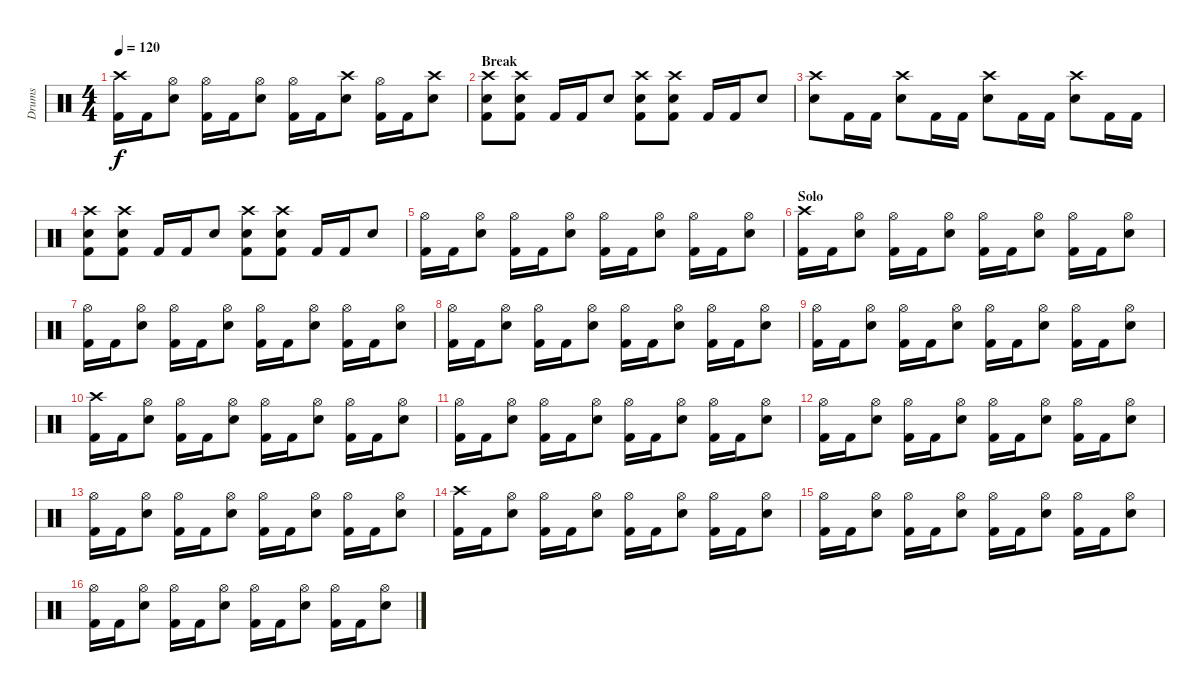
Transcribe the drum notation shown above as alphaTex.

\track ("Drums" "Drums") {instrument percussion}
\staff {score}
\articulation defaults
\ts (4 4)
\tempo 120
\clef neutral
\ks c
("Crash high (hit)" "Kick (hit) 2").16{dy f} "Kick (hit) 2".16 ("Hi-Hat (open)" "Electric Snare (hit)").8 ("Hi-Hat (open)" "Kick (hit) 2").16 "Kick (hit) 2".16 ("Hi-Hat (open)" "Electric Snare (hit)").8 ("Hi-Hat (open)" "Kick (hit) 2").16 "Kick (hit) 2".16 ("Crash high (hit)" "Electric Snare (hit)").8 ("Hi-Hat (open)" "Kick (hit) 2").16 "Kick (hit) 2".16 ("Crash high (hit)" "Electric Snare (hit)").8 |
\section ("" "Break")
("Crash high (hit)" "Electric Snare (hit)" "Kick (hit) 2").8 ("Crash high (hit)" "Electric Snare (hit)" "Kick (hit) 2").8 "Kick (hit) 2".16 "Kick (hit) 2".16 "Electric Snare (hit)".8 ("Crash high (hit)" "Electric Snare (hit)" "Kick (hit) 2").8 ("Crash high (hit)" "Electric Snare (hit)" "Kick (hit) 2").8 "Kick (hit) 2".16 "Kick (hit) 2".16 "Electric Snare (hit)".8 |
("Crash high (hit)" "Electric Snare (hit)").8 "Kick (hit) 2".16 "Kick (hit) 2".16 ("Crash high (hit)" "Electric Snare (hit)").8 "Kick (hit) 2".16 "Kick (hit) 2".16 ("Crash high (hit)" "Electric Snare (hit)").8 "Kick (hit) 2".16 "Kick (hit) 2".16 ("Crash high (hit)" "Electric Snare (hit)").8 "Kick (hit) 2".16 "Kick (hit) 2".16 |
("Crash high (hit)" "Electric Snare (hit)" "Kick (hit) 2").8 ("Crash high (hit)" "Electric Snare (hit)" "Kick (hit) 2").8 "Kick (hit) 2".16 "Kick (hit) 2".16 "Electric Snare (hit)".8 ("Crash high (hit)" "Electric Snare (hit)" "Kick (hit) 2").8 ("Crash high (hit)" "Electric Snare (hit)" "Kick (hit) 2").8 "Kick (hit) 2".16 "Kick (hit) 2".16 "Electric Snare (hit)".8 |
("Hi-Hat (open)" "Kick (hit) 2").16 "Kick (hit) 2".16 ("Hi-Hat (open)" "Electric Snare (hit)").8 ("Hi-Hat (open)" "Kick (hit) 2").16 "Kick (hit) 2".16 ("Hi-Hat (open)" "Electric Snare (hit)").8 ("Hi-Hat (open)" "Kick (hit) 2").16 "Kick (hit) 2".16 ("Hi-Hat (open)" "Electric Snare (hit)").8 ("Hi-Hat (open)" "Kick (hit) 2").16 "Kick (hit) 2".16 ("Hi-Hat (open)" "Electric Snare (hit)").8 |
\section ("" "Solo")
("Crash high (hit)" "Kick (hit) 2").16 "Kick (hit) 2".16 ("Hi-Hat (open)" "Electric Snare (hit)").8 ("Hi-Hat (open)" "Kick (hit) 2").16 "Kick (hit) 2".16 ("Hi-Hat (open)" "Electric Snare (hit)").8 ("Hi-Hat (open)" "Kick (hit) 2").16 "Kick (hit) 2".16 ("Hi-Hat (open)" "Electric Snare (hit)").8 ("Hi-Hat (open)" "Kick (hit) 2").16 "Kick (hit) 2".16 ("Hi-Hat (open)" "Electric Snare (hit)").8 |
("Hi-Hat (open)" "Kick (hit) 2").16 "Kick (hit) 2".16 ("Hi-Hat (open)" "Electric Snare (hit)").8 ("Hi-Hat (open)" "Kick (hit) 2").16 "Kick (hit) 2".16 ("Hi-Hat (open)" "Electric Snare (hit)").8 ("Hi-Hat (open)" "Kick (hit) 2").16 "Kick (hit) 2".16 ("Hi-Hat (open)" "Electric Snare (hit)").8 ("Hi-Hat (open)" "Kick (hit) 2").16 "Kick (hit) 2".16 ("Hi-Hat (open)" "Electric Snare (hit)").8 |
("Hi-Hat (open)" "Kick (hit) 2").16 "Kick (hit) 2".16 ("Hi-Hat (open)" "Electric Snare (hit)").8 ("Hi-Hat (open)" "Kick (hit) 2").16 "Kick (hit) 2".16 ("Hi-Hat (open)" "Electric Snare (hit)").8 ("Hi-Hat (open)" "Kick (hit) 2").16 "Kick (hit) 2".16 ("Hi-Hat (open)" "Electric Snare (hit)").8 ("Hi-Hat (open)" "Kick (hit) 2").16 "Kick (hit) 2".16 ("Hi-Hat (open)" "Electric Snare (hit)").8 |
("Hi-Hat (open)" "Kick (hit) 2").16 "Kick (hit) 2".16 ("Hi-Hat (open)" "Electric Snare (hit)").8 ("Hi-Hat (open)" "Kick (hit) 2").16 "Kick (hit) 2".16 ("Hi-Hat (open)" "Electric Snare (hit)").8 ("Hi-Hat (open)" "Kick (hit) 2").16 "Kick (hit) 2".16 ("Hi-Hat (open)" "Electric Snare (hit)").8 ("Hi-Hat (open)" "Kick (hit) 2").16 "Kick (hit) 2".16 ("Hi-Hat (open)" "Electric Snare (hit)").8 |
("Crash high (hit)" "Kick (hit) 2").16 "Kick (hit) 2".16 ("Hi-Hat (open)" "Electric Snare (hit)").8 ("Hi-Hat (open)" "Kick (hit) 2").16 "Kick (hit) 2".16 ("Hi-Hat (open)" "Electric Snare (hit)").8 ("Hi-Hat (open)" "Kick (hit) 2").16 "Kick (hit) 2".16 ("Hi-Hat (open)" "Electric Snare (hit)").8 ("Hi-Hat (open)" "Kick (hit) 2").16 "Kick (hit) 2".16 ("Hi-Hat (open)" "Electric Snare (hit)").8 |
("Hi-Hat (open)" "Kick (hit) 2").16 "Kick (hit) 2".16 ("Hi-Hat (open)" "Electric Snare (hit)").8 ("Hi-Hat (open)" "Kick (hit) 2").16 "Kick (hit) 2".16 ("Hi-Hat (open)" "Electric Snare (hit)").8 ("Hi-Hat (open)" "Kick (hit) 2").16 "Kick (hit) 2".16 ("Hi-Hat (open)" "Electric Snare (hit)").8 ("Hi-Hat (open)" "Kick (hit) 2").16 "Kick (hit) 2".16 ("Hi-Hat (open)" "Electric Snare (hit)").8 |
("Hi-Hat (open)" "Kick (hit) 2").16 "Kick (hit) 2".16 ("Hi-Hat (open)" "Electric Snare (hit)").8 ("Hi-Hat (open)" "Kick (hit) 2").16 "Kick (hit) 2".16 ("Hi-Hat (open)" "Electric Snare (hit)").8 ("Hi-Hat (open)" "Kick (hit) 2").16 "Kick (hit) 2".16 ("Hi-Hat (open)" "Electric Snare (hit)").8 ("Hi-Hat (open)" "Kick (hit) 2").16 "Kick (hit) 2".16 ("Hi-Hat (open)" "Electric Snare (hit)").8 |
("Hi-Hat (open)" "Kick (hit) 2").16 "Kick (hit) 2".16 ("Hi-Hat (open)" "Electric Snare (hit)").8 ("Hi-Hat (open)" "Kick (hit) 2").16 "Kick (hit) 2".16 ("Hi-Hat (open)" "Electric Snare (hit)").8 ("Hi-Hat (open)" "Kick (hit) 2").16 "Kick (hit) 2".16 ("Hi-Hat (open)" "Electric Snare (hit)").8 ("Hi-Hat (open)" "Kick (hit) 2").16 "Kick (hit) 2".16 ("Hi-Hat (open)" "Electric Snare (hit)").8 |
("Crash high (hit)" "Kick (hit) 2").16 "Kick (hit) 2".16 ("Hi-Hat (open)" "Electric Snare (hit)").8 ("Hi-Hat (open)" "Kick (hit) 2").16 "Kick (hit) 2".16 ("Hi-Hat (open)" "Electric Snare (hit)").8 ("Hi-Hat (open)" "Kick (hit) 2").16 "Kick (hit) 2".16 ("Hi-Hat (open)" "Electric Snare (hit)").8 ("Hi-Hat (open)" "Kick (hit) 2").16 "Kick (hit) 2".16 ("Hi-Hat (open)" "Electric Snare (hit)").8 |
("Hi-Hat (open)" "Kick (hit) 2").16 "Kick (hit) 2".16 ("Hi-Hat (open)" "Electric Snare (hit)").8 ("Hi-Hat (open)" "Kick (hit) 2").16 "Kick (hit) 2".16 ("Hi-Hat (open)" "Electric Snare (hit)").8 ("Hi-Hat (open)" "Kick (hit) 2").16 "Kick (hit) 2".16 ("Hi-Hat (open)" "Electric Snare (hit)").8 ("Hi-Hat (open)" "Kick (hit) 2").16 "Kick (hit) 2".16 ("Hi-Hat (open)" "Electric Snare (hit)").8 |
("Hi-Hat (open)" "Kick (hit) 2").16 "Kick (hit) 2".16 ("Hi-Hat (open)" "Electric Snare (hit)").8 ("Hi-Hat (open)" "Kick (hit) 2").16 "Kick (hit) 2".16 ("Hi-Hat (open)" "Electric Snare (hit)").8 ("Hi-Hat (open)" "Kick (hit) 2").16 "Kick (hit) 2".16 ("Hi-Hat (open)" "Electric Snare (hit)").8 ("Hi-Hat (open)" "Kick (hit) 2").16 "Kick (hit) 2".16 ("Hi-Hat (open)" "Electric Snare (hit)").8
